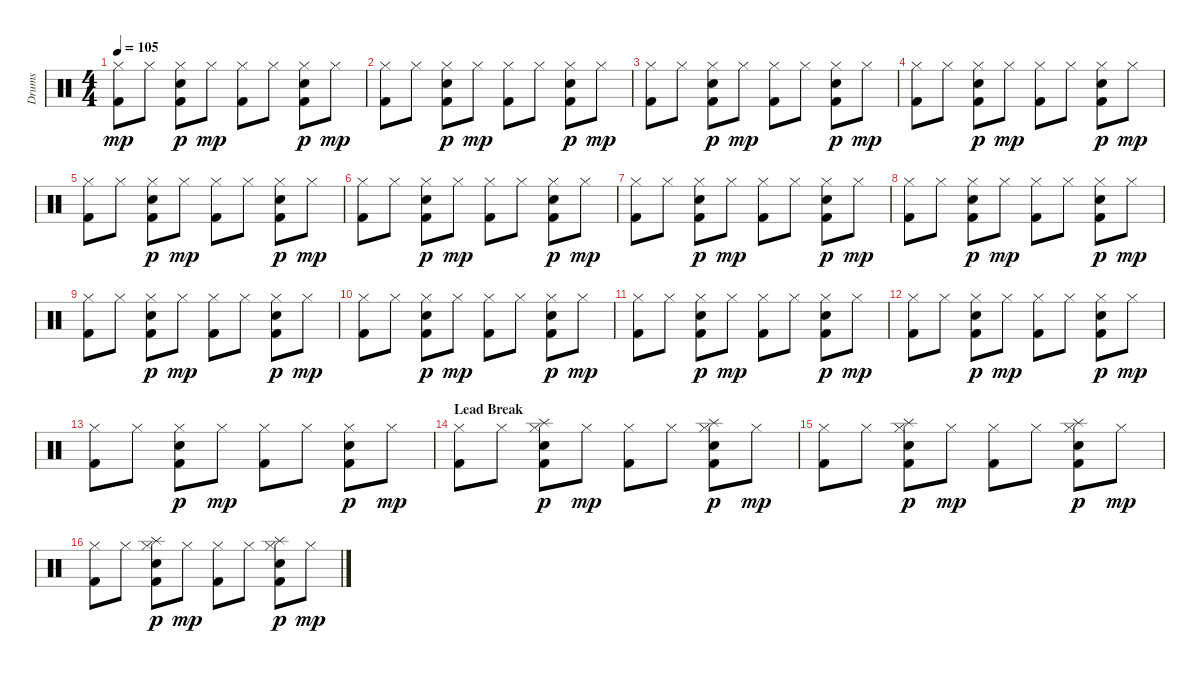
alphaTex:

\track ("Drums" "Drums") {instrument percussion}
\staff {score}
\articulation defaults
\ts (4 4)
\tempo 105
\clef neutral
\ks c
("Hi-Hat (closed)" "Kick (hit) 2").8{dy mp} "Hi-Hat (closed)".8 ("Hi-Hat (closed)" "Snare (hit) 2" "Kick (hit) 2").8{dy p} "Hi-Hat (closed)".8{dy mp} ("Hi-Hat (closed)" "Kick (hit) 2").8 "Hi-Hat (closed)".8 ("Hi-Hat (closed)" "Snare (hit) 2" "Kick (hit) 2").8{dy p} "Hi-Hat (closed)".8{dy mp} |
("Hi-Hat (closed)" "Kick (hit) 2").8 "Hi-Hat (closed)".8 ("Hi-Hat (closed)" "Snare (hit) 2" "Kick (hit) 2").8{dy p} "Hi-Hat (closed)".8{dy mp} ("Hi-Hat (closed)" "Kick (hit) 2").8 "Hi-Hat (closed)".8 ("Hi-Hat (closed)" "Snare (hit) 2" "Kick (hit) 2").8{dy p} "Hi-Hat (closed)".8{dy mp} |
("Hi-Hat (closed)" "Kick (hit) 2").8 "Hi-Hat (closed)".8 ("Hi-Hat (closed)" "Snare (hit) 2" "Kick (hit) 2").8{dy p} "Hi-Hat (closed)".8{dy mp} ("Hi-Hat (closed)" "Kick (hit) 2").8 "Hi-Hat (closed)".8 ("Hi-Hat (closed)" "Snare (hit) 2" "Kick (hit) 2").8{dy p} "Hi-Hat (closed)".8{dy mp} |
("Hi-Hat (closed)" "Kick (hit) 2").8 "Hi-Hat (closed)".8 ("Hi-Hat (closed)" "Snare (hit) 2" "Kick (hit) 2").8{dy p} "Hi-Hat (closed)".8{dy mp} ("Hi-Hat (closed)" "Kick (hit) 2").8 "Hi-Hat (closed)".8 ("Hi-Hat (closed)" "Snare (hit) 2" "Kick (hit) 2").8{dy p} "Hi-Hat (closed)".8{dy mp} |
("Hi-Hat (closed)" "Kick (hit) 2").8 "Hi-Hat (closed)".8 ("Hi-Hat (closed)" "Snare (hit) 2" "Kick (hit) 2").8{dy p} "Hi-Hat (closed)".8{dy mp} ("Hi-Hat (closed)" "Kick (hit) 2").8 "Hi-Hat (closed)".8 ("Hi-Hat (closed)" "Snare (hit) 2" "Kick (hit) 2").8{dy p} "Hi-Hat (closed)".8{dy mp} |
("Hi-Hat (closed)" "Kick (hit) 2").8 "Hi-Hat (closed)".8 ("Hi-Hat (closed)" "Snare (hit) 2" "Kick (hit) 2").8{dy p} "Hi-Hat (closed)".8{dy mp} ("Hi-Hat (closed)" "Kick (hit) 2").8 "Hi-Hat (closed)".8 ("Hi-Hat (closed)" "Snare (hit) 2" "Kick (hit) 2").8{dy p} "Hi-Hat (closed)".8{dy mp} |
("Hi-Hat (closed)" "Kick (hit) 2").8 "Hi-Hat (closed)".8 ("Hi-Hat (closed)" "Snare (hit) 2" "Kick (hit) 2").8{dy p} "Hi-Hat (closed)".8{dy mp} ("Hi-Hat (closed)" "Kick (hit) 2").8 "Hi-Hat (closed)".8 ("Hi-Hat (closed)" "Snare (hit) 2" "Kick (hit) 2").8{dy p} "Hi-Hat (closed)".8{dy mp} |
("Hi-Hat (closed)" "Kick (hit) 2").8 "Hi-Hat (closed)".8 ("Hi-Hat (closed)" "Snare (hit) 2" "Kick (hit) 2").8{dy p} "Hi-Hat (closed)".8{dy mp} ("Hi-Hat (closed)" "Kick (hit) 2").8 "Hi-Hat (closed)".8 ("Hi-Hat (closed)" "Snare (hit) 2" "Kick (hit) 2").8{dy p} "Hi-Hat (closed)".8{dy mp} |
("Hi-Hat (closed)" "Kick (hit) 2").8 "Hi-Hat (closed)".8 ("Hi-Hat (closed)" "Snare (hit) 2" "Kick (hit) 2").8{dy p} "Hi-Hat (closed)".8{dy mp} ("Hi-Hat (closed)" "Kick (hit) 2").8 "Hi-Hat (closed)".8 ("Hi-Hat (closed)" "Snare (hit) 2" "Kick (hit) 2").8{dy p} "Hi-Hat (closed)".8{dy mp} |
("Hi-Hat (closed)" "Kick (hit) 2").8 "Hi-Hat (closed)".8 ("Hi-Hat (closed)" "Snare (hit) 2" "Kick (hit) 2").8{dy p} "Hi-Hat (closed)".8{dy mp} ("Hi-Hat (closed)" "Kick (hit) 2").8 "Hi-Hat (closed)".8 ("Hi-Hat (closed)" "Snare (hit) 2" "Kick (hit) 2").8{dy p} "Hi-Hat (closed)".8{dy mp} |
("Hi-Hat (closed)" "Kick (hit) 2").8 "Hi-Hat (closed)".8 ("Hi-Hat (closed)" "Snare (hit) 2" "Kick (hit) 2").8{dy p} "Hi-Hat (closed)".8{dy mp} ("Hi-Hat (closed)" "Kick (hit) 2").8 "Hi-Hat (closed)".8 ("Hi-Hat (closed)" "Snare (hit) 2" "Kick (hit) 2").8{dy p} "Hi-Hat (closed)".8{dy mp} |
("Hi-Hat (closed)" "Kick (hit) 2").8 "Hi-Hat (closed)".8 ("Hi-Hat (closed)" "Snare (hit) 2" "Kick (hit) 2").8{dy p} "Hi-Hat (closed)".8{dy mp} ("Hi-Hat (closed)" "Kick (hit) 2").8 "Hi-Hat (closed)".8 ("Hi-Hat (closed)" "Snare (hit) 2" "Kick (hit) 2").8{dy p} "Hi-Hat (closed)".8{dy mp} |
("Hi-Hat (closed)" "Kick (hit) 2").8 "Hi-Hat (closed)".8 ("Hi-Hat (closed)" "Snare (hit) 2" "Kick (hit) 2").8{dy p} "Hi-Hat (closed)".8{dy mp} ("Hi-Hat (closed)" "Kick (hit) 2").8 "Hi-Hat (closed)".8 ("Hi-Hat (closed)" "Snare (hit) 2" "Kick (hit) 2").8{dy p} "Hi-Hat (closed)".8{dy mp} |
\section ("" "Lead Break")
("Hi-Hat (closed)" "Kick (hit) 2").8 "Hi-Hat (closed)".8 ("Splash (hit)" "Hi-Hat (closed)" "Snare (hit) 2" "Kick (hit) 2").8{dy p} "Hi-Hat (closed)".8{dy mp} ("Hi-Hat (closed)" "Kick (hit) 2").8 "Hi-Hat (closed)".8 ("Splash (hit)" "Hi-Hat (closed)" "Snare (hit) 2" "Kick (hit) 2").8{dy p} "Hi-Hat (closed)".8{dy mp} |
("Hi-Hat (closed)" "Kick (hit) 2").8 "Hi-Hat (closed)".8 ("Splash (hit)" "Hi-Hat (closed)" "Snare (hit) 2" "Kick (hit) 2").8{dy p} "Hi-Hat (closed)".8{dy mp} ("Hi-Hat (closed)" "Kick (hit) 2").8 "Hi-Hat (closed)".8 ("Splash (hit)" "Hi-Hat (closed)" "Snare (hit) 2" "Kick (hit) 2").8{dy p} "Hi-Hat (closed)".8{dy mp} |
("Hi-Hat (closed)" "Kick (hit) 2").8 "Hi-Hat (closed)".8 ("Splash (hit)" "Hi-Hat (closed)" "Snare (hit) 2" "Kick (hit) 2").8{dy p} "Hi-Hat (closed)".8{dy mp} ("Hi-Hat (closed)" "Kick (hit) 2").8 "Hi-Hat (closed)".8 ("Splash (hit)" "Hi-Hat (closed)" "Snare (hit) 2" "Kick (hit) 2").8{dy p} "Hi-Hat (closed)".8{dy mp}
